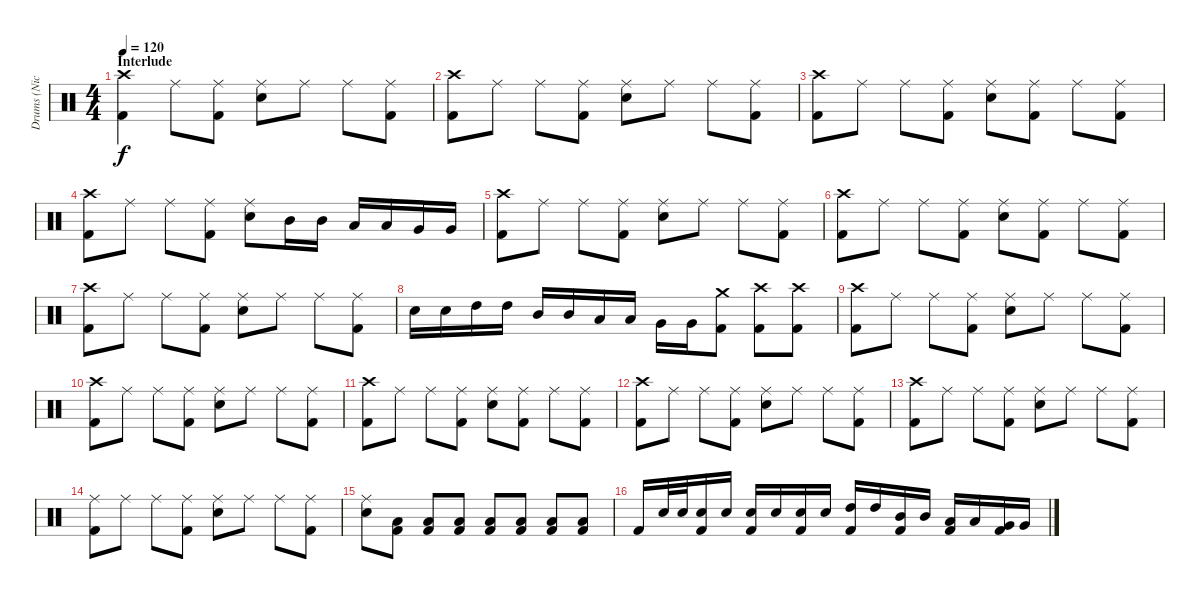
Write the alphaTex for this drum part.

\track ("Drums (Nick Menza)" "Drums (Nic") {instrument percussion}
\staff {score}
\articulation defaults
\ts (4 4)
\section ("" "Interlude")
\tempo 120
\clef neutral
\ks c
("Crash high (hit)" "Kick (hit) 2").4{dy f} "Ride (middle)".8 ("Ride (middle)" "Kick (hit) 2").8 ("Ride (middle)" "Snare (hit) 2").8 "Ride (middle)".8 "Ride (middle)".8 ("Ride (middle)" "Kick (hit) 2").8 |
("Crash high (hit)" "Kick (hit) 2").8 "Ride (middle)".8 "Ride (middle)".8 ("Ride (middle)" "Kick (hit) 2").8 ("Ride (middle)" "Snare (hit) 2").8 "Ride (middle)".8 "Ride (middle)".8 ("Ride (middle)" "Kick (hit) 2").8 |
("Crash high (hit)" "Kick (hit) 2").8 "Ride (middle)".8 "Ride (middle)".8 ("Ride (middle)" "Kick (hit) 2").8 ("Ride (middle)" "Snare (hit) 2").8 ("Ride (middle)" "Kick (hit) 2").8 "Ride (middle)".8 ("Ride (middle)" "Kick (hit) 2").8 |
("Crash high (hit)" "Kick (hit) 2").8 "Ride (middle)".8 "Ride (middle)".8 ("Ride (middle)" "Kick (hit) 2").8 ("Ride (middle)" "Snare (hit) 2").8 "Mid Tom (hit)".16 "Mid Tom (hit)".16 "Low Tom (hit)".16 "Low Tom (hit)".16 "Very Low Tom (hit)".16 "Very Low Tom (hit)".16 |
("Crash high (hit)" "Kick (hit) 2").8 "Ride (middle)".8 "Ride (middle)".8 ("Ride (middle)" "Kick (hit) 2").8 ("Ride (middle)" "Snare (hit) 2").8 "Ride (middle)".8 "Ride (middle)".8 ("Ride (middle)" "Kick (hit) 2").8 |
("Crash high (hit)" "Kick (hit) 2").8 "Ride (middle)".8 "Ride (middle)".8 ("Ride (middle)" "Kick (hit) 2").8 ("Ride (middle)" "Snare (hit) 2").8 ("Ride (middle)" "Kick (hit) 2").8 "Ride (middle)".8 ("Ride (middle)" "Kick (hit) 2").8 |
("Crash high (hit)" "Kick (hit) 2").8 "Ride (middle)".8 "Ride (middle)".8 ("Ride (middle)" "Kick (hit) 2").8 ("Ride (middle)" "Snare (hit) 2").8 "Ride (middle)".8 "Ride (middle)".8 ("Ride (middle)" "Kick (hit) 2").8 |
"Snare (hit) 2".16 "Snare (hit) 2".16 "High Tom (hit)".16 "High Tom (hit)".16 "Mid Tom (hit)".16 "Mid Tom (hit)".16 "Low Tom (hit)".16 "Low Tom (hit)".16 "Very Low Tom (hit)".16 "Very Low Tom (hit)".16 ("Crash medium (hit)" "Kick (hit) 2").8 ("Crash high (hit)" "Kick (hit) 2").8 ("Crash high (hit)" "Kick (hit) 2").8 |
("Crash high (hit)" "Kick (hit) 2").8 "Ride (middle)".8 "Ride (middle)".8 ("Ride (middle)" "Kick (hit) 2").8 ("Ride (middle)" "Snare (hit) 2").8 "Ride (middle)".8 "Ride (middle)".8 ("Ride (middle)" "Kick (hit) 2").8 |
("Crash high (hit)" "Kick (hit) 2").8 "Ride (middle)".8 "Ride (middle)".8 ("Ride (middle)" "Kick (hit) 2").8 ("Ride (middle)" "Snare (hit) 2").8 "Ride (middle)".8 "Ride (middle)".8 ("Ride (middle)" "Kick (hit) 2").8 |
("Crash high (hit)" "Kick (hit) 2").8 "Ride (middle)".8 "Ride (middle)".8 ("Ride (middle)" "Kick (hit) 2").8 ("Ride (middle)" "Snare (hit) 2").8 ("Ride (middle)" "Kick (hit) 2").8 "Ride (middle)".8 ("Ride (middle)" "Kick (hit) 2").8 |
("Crash high (hit)" "Kick (hit) 2").8 "Ride (middle)".8 "Ride (middle)".8 ("Ride (middle)" "Kick (hit) 2").8 ("Ride (middle)" "Snare (hit) 2").8 "Ride (middle)".8 "Ride (middle)".8 ("Ride (middle)" "Kick (hit) 2").8 |
("Crash high (hit)" "Kick (hit) 2").8 "Ride (middle)".8 "Ride (middle)".8 ("Ride (middle)" "Kick (hit) 2").8 ("Ride (middle)" "Snare (hit) 2").8 "Ride (middle)".8 "Ride (middle)".8 ("Ride (middle)" "Kick (hit) 2").8 |
("Ride (middle)" "Kick (hit) 2").8 "Ride (middle)".8 "Ride (middle)".8 ("Ride (middle)" "Kick (hit) 2").8 ("Ride (middle)" "Snare (hit) 2").8 "Ride (middle)".8 "Ride (middle)".8 ("Ride (middle)" "Kick (hit) 2").8 |
("Ride (middle)" "Snare (hit) 2").8 ("Low Floor Tom (hit)" "Kick (hit) 2").8 ("Low Floor Tom (hit)" "Kick (hit) 2").8 ("Low Floor Tom (hit)" "Kick (hit) 2").8 ("Low Floor Tom (hit)" "Kick (hit) 2").8 ("Low Floor Tom (hit)" "Kick (hit) 2").8 ("Low Floor Tom (hit)" "Kick (hit) 2").8 ("Low Floor Tom (hit)" "Kick (hit) 2").8 |
"Kick (hit) 2".16 "Snare (hit) 2".32 "Snare (hit) 2".32 ("Snare (hit) 2" "Kick (hit) 2").16 "Snare (hit) 2".16 ("Snare (hit) 2" "Kick (hit) 2").16 "Snare (hit) 2".16 ("Snare (hit) 2" "Kick (hit) 2").16 "Snare (hit) 2".16 ("High Tom (hit)" "Kick (hit) 2").16 "High Tom (hit)".16 ("Mid Tom (hit)" "Kick (hit) 2").16 "Mid Tom (hit)".16 ("Low Tom (hit)" "Kick (hit) 2").16 "Low Tom (hit)".16 ("Very Low Tom (hit)" "Kick (hit) 2").16 "Very Low Tom (hit)".16
